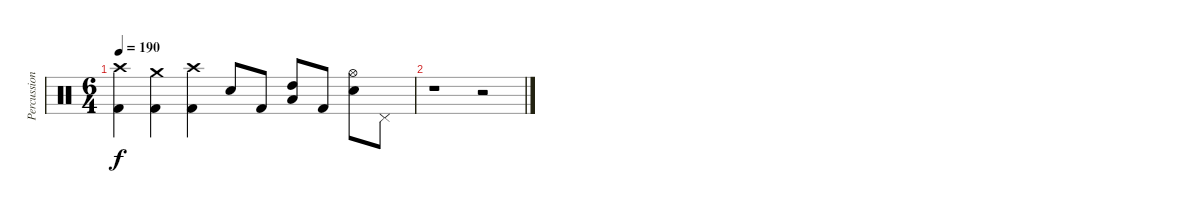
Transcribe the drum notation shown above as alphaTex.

\track ("Percussion" "Percussion") {instrument percussion}
\staff {score}
\articulation defaults
\ts (6 4)
\tempo 190
\clef neutral
\ks c
("Crash high (hit)" "Kick (hit) 2").4{dy f} ("Crash medium (hit)" "Kick (hit) 2").4 ("Crash high (hit)" "Kick (hit) 2").4 "Electric Snare (hit)".8 "Kick (hit) 2".8 ("High Tom (hit)" "Low Tom (hit)").8 "Kick (hit) 2".8 ("Hi-Hat (open)" "Electric Snare (hit)").8 "Pedal Hi-Hat (hit)".8 |
r.1 r.2
